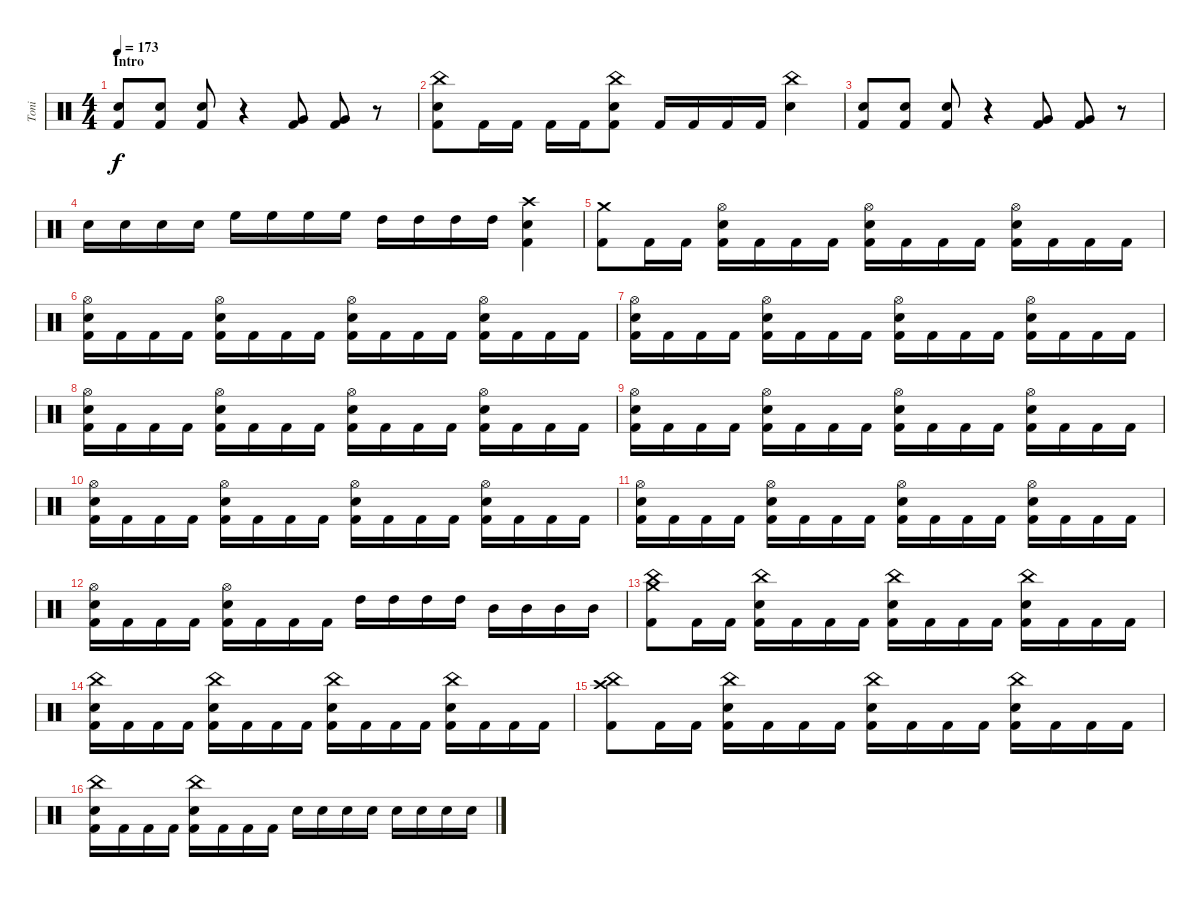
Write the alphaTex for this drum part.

\track ("Toni" "Toni") {instrument percussion}
\staff {score}
\articulation defaults
\ts (4 4)
\section ("" "Intro")
\tempo 173
\clef neutral
\ks c
("Electric Snare (hit)" "Kick (hit) 2").8{dy f} ("Electric Snare (hit)" "Kick (hit) 2").8 ("Electric Snare (hit)" "Kick (hit) 2").8 r.4 ("Very Low Tom (hit)" "Kick (hit) 2").8 ("Very Low Tom (hit)" "Kick (hit) 2").8 r.8 |
("China (hit)" "Electric Snare (hit)" "Kick (hit) 2").8 "Kick (hit) 2".16 "Kick (hit) 2".16 "Kick (hit) 2".16 "Kick (hit) 2".16 ("China (hit)" "Electric Snare (hit)" "Kick (hit) 2").8 "Kick (hit) 2".16 "Kick (hit) 2".16 "Kick (hit) 2".16 "Kick (hit) 2".16 ("China (hit)" "Electric Snare (hit)").4 |
("Electric Snare (hit)" "Kick (hit) 2").8 ("Electric Snare (hit)" "Kick (hit) 2").8 ("Electric Snare (hit)" "Kick (hit) 2").8 r.4 ("Very Low Tom (hit)" "Kick (hit) 2").8 ("Very Low Tom (hit)" "Kick (hit) 2").8 r.8 |
"Electric Snare (hit)".16 "Electric Snare (hit)".16 "Electric Snare (hit)".16 "Electric Snare (hit)".16 "High Floor Tom (hit)".16 "High Floor Tom (hit)".16 "High Floor Tom (hit)".16 "High Floor Tom (hit)".16 "High Tom (hit)".16 "High Tom (hit)".16 "High Tom (hit)".16 "High Tom (hit)".16 ("Crash high (hit)" "Electric Snare (hit)" "Kick (hit) 2").4 |
("Crash medium (hit)" "Kick (hit) 2").8 "Kick (hit) 2".16 "Kick (hit) 2".16 ("Hi-Hat (open)" "Electric Snare (hit)" "Kick (hit) 2").16 "Kick (hit) 2".16 "Kick (hit) 2".16 "Kick (hit) 2".16 ("Hi-Hat (open)" "Electric Snare (hit)" "Kick (hit) 2").16 "Kick (hit) 2".16 "Kick (hit) 2".16 "Kick (hit) 2".16 ("Hi-Hat (open)" "Electric Snare (hit)" "Kick (hit) 2").16 "Kick (hit) 2".16 "Kick (hit) 2".16 "Kick (hit) 2".16 |
("Hi-Hat (open)" "Electric Snare (hit)" "Kick (hit) 2").16 "Kick (hit) 2".16 "Kick (hit) 2".16 "Kick (hit) 2".16 ("Hi-Hat (open)" "Electric Snare (hit)" "Kick (hit) 2").16 "Kick (hit) 2".16 "Kick (hit) 2".16 "Kick (hit) 2".16 ("Hi-Hat (open)" "Electric Snare (hit)" "Kick (hit) 2").16 "Kick (hit) 2".16 "Kick (hit) 2".16 "Kick (hit) 2".16 ("Hi-Hat (open)" "Electric Snare (hit)" "Kick (hit) 2").16 "Kick (hit) 2".16 "Kick (hit) 2".16 "Kick (hit) 2".16 |
("Hi-Hat (open)" "Electric Snare (hit)" "Kick (hit) 2").16 "Kick (hit) 2".16 "Kick (hit) 2".16 "Kick (hit) 2".16 ("Hi-Hat (open)" "Electric Snare (hit)" "Kick (hit) 2").16 "Kick (hit) 2".16 "Kick (hit) 2".16 "Kick (hit) 2".16 ("Hi-Hat (open)" "Electric Snare (hit)" "Kick (hit) 2").16 "Kick (hit) 2".16 "Kick (hit) 2".16 "Kick (hit) 2".16 ("Hi-Hat (open)" "Electric Snare (hit)" "Kick (hit) 2").16 "Kick (hit) 2".16 "Kick (hit) 2".16 "Kick (hit) 2".16 |
("Hi-Hat (open)" "Electric Snare (hit)" "Kick (hit) 2").16 "Kick (hit) 2".16 "Kick (hit) 2".16 "Kick (hit) 2".16 ("Hi-Hat (open)" "Electric Snare (hit)" "Kick (hit) 2").16 "Kick (hit) 2".16 "Kick (hit) 2".16 "Kick (hit) 2".16 ("Hi-Hat (open)" "Electric Snare (hit)" "Kick (hit) 2").16 "Kick (hit) 2".16 "Kick (hit) 2".16 "Kick (hit) 2".16 ("Hi-Hat (open)" "Electric Snare (hit)" "Kick (hit) 2").16 "Kick (hit) 2".16 "Kick (hit) 2".16 "Kick (hit) 2".16 |
("Hi-Hat (open)" "Electric Snare (hit)" "Kick (hit) 2").16 "Kick (hit) 2".16 "Kick (hit) 2".16 "Kick (hit) 2".16 ("Hi-Hat (open)" "Electric Snare (hit)" "Kick (hit) 2").16 "Kick (hit) 2".16 "Kick (hit) 2".16 "Kick (hit) 2".16 ("Hi-Hat (open)" "Electric Snare (hit)" "Kick (hit) 2").16 "Kick (hit) 2".16 "Kick (hit) 2".16 "Kick (hit) 2".16 ("Hi-Hat (open)" "Electric Snare (hit)" "Kick (hit) 2").16 "Kick (hit) 2".16 "Kick (hit) 2".16 "Kick (hit) 2".16 |
("Hi-Hat (open)" "Electric Snare (hit)" "Kick (hit) 2").16 "Kick (hit) 2".16 "Kick (hit) 2".16 "Kick (hit) 2".16 ("Hi-Hat (open)" "Electric Snare (hit)" "Kick (hit) 2").16 "Kick (hit) 2".16 "Kick (hit) 2".16 "Kick (hit) 2".16 ("Hi-Hat (open)" "Electric Snare (hit)" "Kick (hit) 2").16 "Kick (hit) 2".16 "Kick (hit) 2".16 "Kick (hit) 2".16 ("Hi-Hat (open)" "Electric Snare (hit)" "Kick (hit) 2").16 "Kick (hit) 2".16 "Kick (hit) 2".16 "Kick (hit) 2".16 |
("Hi-Hat (open)" "Electric Snare (hit)" "Kick (hit) 2").16 "Kick (hit) 2".16 "Kick (hit) 2".16 "Kick (hit) 2".16 ("Hi-Hat (open)" "Electric Snare (hit)" "Kick (hit) 2").16 "Kick (hit) 2".16 "Kick (hit) 2".16 "Kick (hit) 2".16 ("Hi-Hat (open)" "Electric Snare (hit)" "Kick (hit) 2").16 "Kick (hit) 2".16 "Kick (hit) 2".16 "Kick (hit) 2".16 ("Hi-Hat (open)" "Electric Snare (hit)" "Kick (hit) 2").16 "Kick (hit) 2".16 "Kick (hit) 2".16 "Kick (hit) 2".16 |
("Hi-Hat (open)" "Electric Snare (hit)" "Kick (hit) 2").16 "Kick (hit) 2".16 "Kick (hit) 2".16 "Kick (hit) 2".16 ("Hi-Hat (open)" "Electric Snare (hit)" "Kick (hit) 2").16 "Kick (hit) 2".16 "Kick (hit) 2".16 "Kick (hit) 2".16 "High Tom (hit)".16 "High Tom (hit)".16 "High Tom (hit)".16 "High Tom (hit)".16 "Mid Tom (hit)".16 "Mid Tom (hit)".16 "Mid Tom (hit)".16 "Mid Tom (hit)".16 |
("China (hit)" "Crash medium (hit)" "Kick (hit) 2").8 "Kick (hit) 2".16 "Kick (hit) 2".16 ("China (hit)" "Electric Snare (hit)" "Kick (hit) 2").16 "Kick (hit) 2".16 "Kick (hit) 2".16 "Kick (hit) 2".16 ("China (hit)" "Electric Snare (hit)" "Kick (hit) 2").16 "Kick (hit) 2".16 "Kick (hit) 2".16 "Kick (hit) 2".16 ("China (hit)" "Electric Snare (hit)" "Kick (hit) 2").16 "Kick (hit) 2".16 "Kick (hit) 2".16 "Kick (hit) 2".16 |
("China (hit)" "Electric Snare (hit)" "Kick (hit) 2").16 "Kick (hit) 2".16 "Kick (hit) 2".16 "Kick (hit) 2".16 ("China (hit)" "Electric Snare (hit)" "Kick (hit) 2").16 "Kick (hit) 2".16 "Kick (hit) 2".16 "Kick (hit) 2".16 ("China (hit)" "Electric Snare (hit)" "Kick (hit) 2").16 "Kick (hit) 2".16 "Kick (hit) 2".16 "Kick (hit) 2".16 ("China (hit)" "Electric Snare (hit)" "Kick (hit) 2").16 "Kick (hit) 2".16 "Kick (hit) 2".16 "Kick (hit) 2".16 |
("China (hit)" "Crash high (hit)" "Kick (hit) 2").8 "Kick (hit) 2".16 "Kick (hit) 2".16 ("China (hit)" "Electric Snare (hit)" "Kick (hit) 2").16 "Kick (hit) 2".16 "Kick (hit) 2".16 "Kick (hit) 2".16 ("China (hit)" "Electric Snare (hit)" "Kick (hit) 2").16 "Kick (hit) 2".16 "Kick (hit) 2".16 "Kick (hit) 2".16 ("China (hit)" "Electric Snare (hit)" "Kick (hit) 2").16 "Kick (hit) 2".16 "Kick (hit) 2".16 "Kick (hit) 2".16 |
("China (hit)" "Electric Snare (hit)" "Kick (hit) 2").16 "Kick (hit) 2".16 "Kick (hit) 2".16 "Kick (hit) 2".16 ("China (hit)" "Electric Snare (hit)" "Kick (hit) 2").16 "Kick (hit) 2".16 "Kick (hit) 2".16 "Kick (hit) 2".16 "Electric Snare (hit)".16 "Electric Snare (hit)".16 "Electric Snare (hit)".16 "Electric Snare (hit)".16 "Electric Snare (hit)".16 "Electric Snare (hit)".16 "Electric Snare (hit)".16 "Electric Snare (hit)".16
